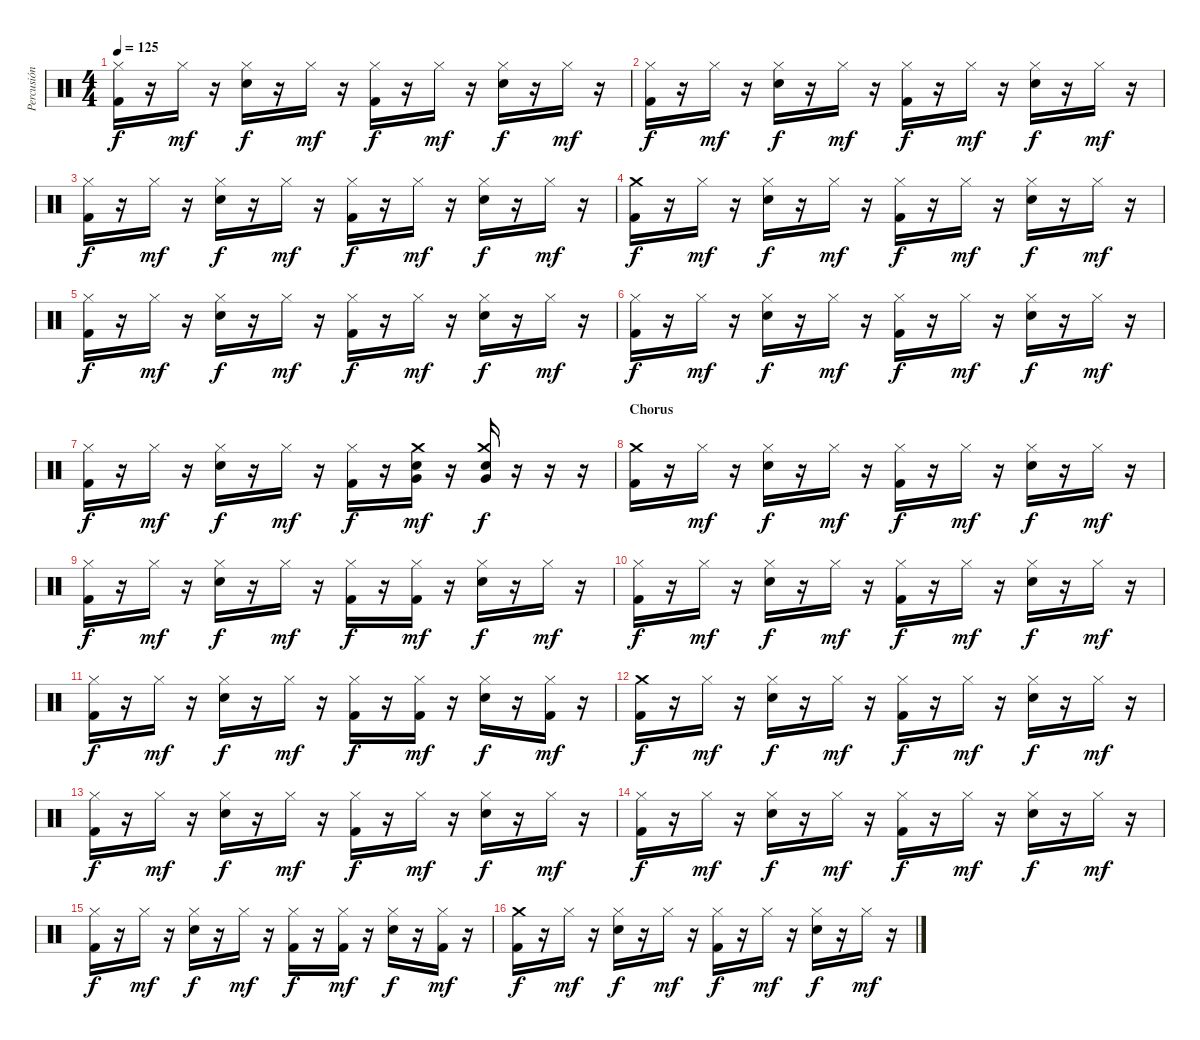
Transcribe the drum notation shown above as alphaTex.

\track ("Percusión" "Percusión") {instrument percussion}
\staff {score}
\articulation defaults
\ts (4 4)
\tempo 125
\clef neutral
\ks c
("Hi-Hat (closed)" "Kick (hit) 2").16{dy f} r.16 "Hi-Hat (closed)".16{dy mf} r.16 ("Hi-Hat (closed)" "Electric Snare (hit)").16{dy f} r.16 "Hi-Hat (closed)".16{dy mf} r.16 ("Hi-Hat (closed)" "Kick (hit) 2").16{dy f} r.16 "Hi-Hat (closed)".16{dy mf} r.16 ("Hi-Hat (closed)" "Electric Snare (hit)").16{dy f} r.16 "Hi-Hat (closed)".16{dy mf} r.16 |
("Hi-Hat (closed)" "Kick (hit) 2").16{dy f} r.16 "Hi-Hat (closed)".16{dy mf} r.16 ("Hi-Hat (closed)" "Electric Snare (hit)").16{dy f} r.16 "Hi-Hat (closed)".16{dy mf} r.16 ("Hi-Hat (closed)" "Kick (hit) 2").16{dy f} r.16 "Hi-Hat (closed)".16{dy mf} r.16 ("Hi-Hat (closed)" "Electric Snare (hit)").16{dy f} r.16 "Hi-Hat (closed)".16{dy mf} r.16 |
("Hi-Hat (closed)" "Kick (hit) 2").16{dy f} r.16 "Hi-Hat (closed)".16{dy mf} r.16 ("Hi-Hat (closed)" "Electric Snare (hit)").16{dy f} r.16 "Hi-Hat (closed)".16{dy mf} r.16 ("Hi-Hat (closed)" "Kick (hit) 2").16{dy f} r.16 "Hi-Hat (closed)".16{dy mf} r.16 ("Hi-Hat (closed)" "Electric Snare (hit)").16{dy f} r.16 "Hi-Hat (closed)".16{dy mf} r.16 |
("Crash medium (hit)" "Kick (hit) 2").16{dy f} r.16 "Hi-Hat (closed)".16{dy mf} r.16 ("Hi-Hat (closed)" "Electric Snare (hit)").16{dy f} r.16 "Hi-Hat (closed)".16{dy mf} r.16 ("Hi-Hat (closed)" "Kick (hit) 2").16{dy f} r.16 "Hi-Hat (closed)".16{dy mf} r.16 ("Hi-Hat (closed)" "Electric Snare (hit)").16{dy f} r.16 "Hi-Hat (closed)".16{dy mf} r.16 |
("Hi-Hat (closed)" "Kick (hit) 2").16{dy f} r.16 "Hi-Hat (closed)".16{dy mf} r.16 ("Hi-Hat (closed)" "Electric Snare (hit)").16{dy f} r.16 "Hi-Hat (closed)".16{dy mf} r.16 ("Hi-Hat (closed)" "Kick (hit) 2").16{dy f} r.16 "Hi-Hat (closed)".16{dy mf} r.16 ("Hi-Hat (closed)" "Electric Snare (hit)").16{dy f} r.16 "Hi-Hat (closed)".16{dy mf} r.16 |
("Hi-Hat (closed)" "Kick (hit) 2").16{dy f} r.16 "Hi-Hat (closed)".16{dy mf} r.16 ("Hi-Hat (closed)" "Electric Snare (hit)").16{dy f} r.16 "Hi-Hat (closed)".16{dy mf} r.16 ("Hi-Hat (closed)" "Kick (hit) 2").16{dy f} r.16 "Hi-Hat (closed)".16{dy mf} r.16 ("Hi-Hat (closed)" "Electric Snare (hit)").16{dy f} r.16 "Hi-Hat (closed)".16{dy mf} r.16 |
("Hi-Hat (closed)" "Kick (hit) 2").16{dy f} r.16 "Hi-Hat (closed)".16{dy mf} r.16 ("Hi-Hat (closed)" "Electric Snare (hit)").16{dy f} r.16 "Hi-Hat (closed)".16{dy mf} r.16 ("Hi-Hat (closed)" "Kick (hit) 2").16{dy f} r.16 ("Crash medium (hit)" "Very Low Tom (hit)" "Electric Snare (hit)").16{dy mf} r.16 ("Crash medium (hit)" "Very Low Tom (hit)" "Electric Snare (hit)").16{dy f} r.16 r.16 r.16 |
\section ("" "Chorus")
("Crash medium (hit)" "Kick (hit) 2").16 r.16 "Hi-Hat (closed)".16{dy mf} r.16 ("Hi-Hat (closed)" "Electric Snare (hit)").16{dy f} r.16 "Hi-Hat (closed)".16{dy mf} r.16 ("Hi-Hat (closed)" "Kick (hit) 2").16{dy f} r.16 "Hi-Hat (closed)".16{dy mf} r.16 ("Hi-Hat (closed)" "Electric Snare (hit)").16{dy f} r.16 "Hi-Hat (closed)".16{dy mf} r.16 |
("Hi-Hat (closed)" "Kick (hit) 2").16{dy f} r.16 "Hi-Hat (closed)".16{dy mf} r.16 ("Hi-Hat (closed)" "Electric Snare (hit)").16{dy f} r.16 "Hi-Hat (closed)".16{dy mf} r.16 ("Hi-Hat (closed)" "Kick (hit) 2").16{dy f} r.16 ("Hi-Hat (closed)" "Kick (hit) 2").16{dy mf} r.16 ("Hi-Hat (closed)" "Electric Snare (hit)").16{dy f} r.16 "Hi-Hat (closed)".16{dy mf} r.16 |
("Hi-Hat (closed)" "Kick (hit) 2").16{dy f} r.16 "Hi-Hat (closed)".16{dy mf} r.16 ("Hi-Hat (closed)" "Electric Snare (hit)").16{dy f} r.16 "Hi-Hat (closed)".16{dy mf} r.16 ("Hi-Hat (closed)" "Kick (hit) 2").16{dy f} r.16 "Hi-Hat (closed)".16{dy mf} r.16 ("Hi-Hat (closed)" "Electric Snare (hit)").16{dy f} r.16 "Hi-Hat (closed)".16{dy mf} r.16 |
("Hi-Hat (closed)" "Kick (hit) 2").16{dy f} r.16 "Hi-Hat (closed)".16{dy mf} r.16 ("Hi-Hat (closed)" "Electric Snare (hit)").16{dy f} r.16 "Hi-Hat (closed)".16{dy mf} r.16 ("Hi-Hat (closed)" "Kick (hit) 2").16{dy f} r.16 ("Hi-Hat (closed)" "Kick (hit) 2").16{dy mf} r.16 ("Hi-Hat (closed)" "Electric Snare (hit)").16{dy f} r.16 ("Hi-Hat (closed)" "Kick (hit) 2").16{dy mf} r.16 |
("Crash medium (hit)" "Kick (hit) 2").16{dy f} r.16 "Hi-Hat (closed)".16{dy mf} r.16 ("Hi-Hat (closed)" "Electric Snare (hit)").16{dy f} r.16 "Hi-Hat (closed)".16{dy mf} r.16 ("Hi-Hat (closed)" "Kick (hit) 2").16{dy f} r.16 "Hi-Hat (closed)".16{dy mf} r.16 ("Hi-Hat (closed)" "Electric Snare (hit)").16{dy f} r.16 "Hi-Hat (closed)".16{dy mf} r.16 |
("Hi-Hat (closed)" "Kick (hit) 2").16{dy f} r.16 "Hi-Hat (closed)".16{dy mf} r.16 ("Hi-Hat (closed)" "Electric Snare (hit)").16{dy f} r.16 "Hi-Hat (closed)".16{dy mf} r.16 ("Hi-Hat (closed)" "Kick (hit) 2").16{dy f} r.16 "Hi-Hat (closed)".16{dy mf} r.16 ("Hi-Hat (closed)" "Electric Snare (hit)").16{dy f} r.16 "Hi-Hat (closed)".16{dy mf} r.16 |
("Hi-Hat (closed)" "Kick (hit) 2").16{dy f} r.16 "Hi-Hat (closed)".16{dy mf} r.16 ("Hi-Hat (closed)" "Electric Snare (hit)").16{dy f} r.16 "Hi-Hat (closed)".16{dy mf} r.16 ("Hi-Hat (closed)" "Kick (hit) 2").16{dy f} r.16 "Hi-Hat (closed)".16{dy mf} r.16 ("Hi-Hat (closed)" "Electric Snare (hit)").16{dy f} r.16 "Hi-Hat (closed)".16{dy mf} r.16 |
("Hi-Hat (closed)" "Kick (hit) 2").16{dy f} r.16 "Hi-Hat (closed)".16{dy mf} r.16 ("Hi-Hat (closed)" "Electric Snare (hit)").16{dy f} r.16 "Hi-Hat (closed)".16{dy mf} r.16 ("Hi-Hat (closed)" "Kick (hit) 2").16{dy f} r.16 ("Hi-Hat (closed)" "Kick (hit) 2").16{dy mf} r.16 ("Hi-Hat (closed)" "Electric Snare (hit)").16{dy f} r.16 ("Hi-Hat (closed)" "Kick (hit) 2").16{dy mf} r.16 |
("Crash medium (hit)" "Kick (hit) 2").16{dy f} r.16 "Hi-Hat (closed)".16{dy mf} r.16 ("Hi-Hat (closed)" "Electric Snare (hit)").16{dy f} r.16 "Hi-Hat (closed)".16{dy mf} r.16 ("Hi-Hat (closed)" "Kick (hit) 2").16{dy f} r.16 "Hi-Hat (closed)".16{dy mf} r.16 ("Hi-Hat (closed)" "Electric Snare (hit)").16{dy f} r.16 "Hi-Hat (closed)".16{dy mf} r.16
